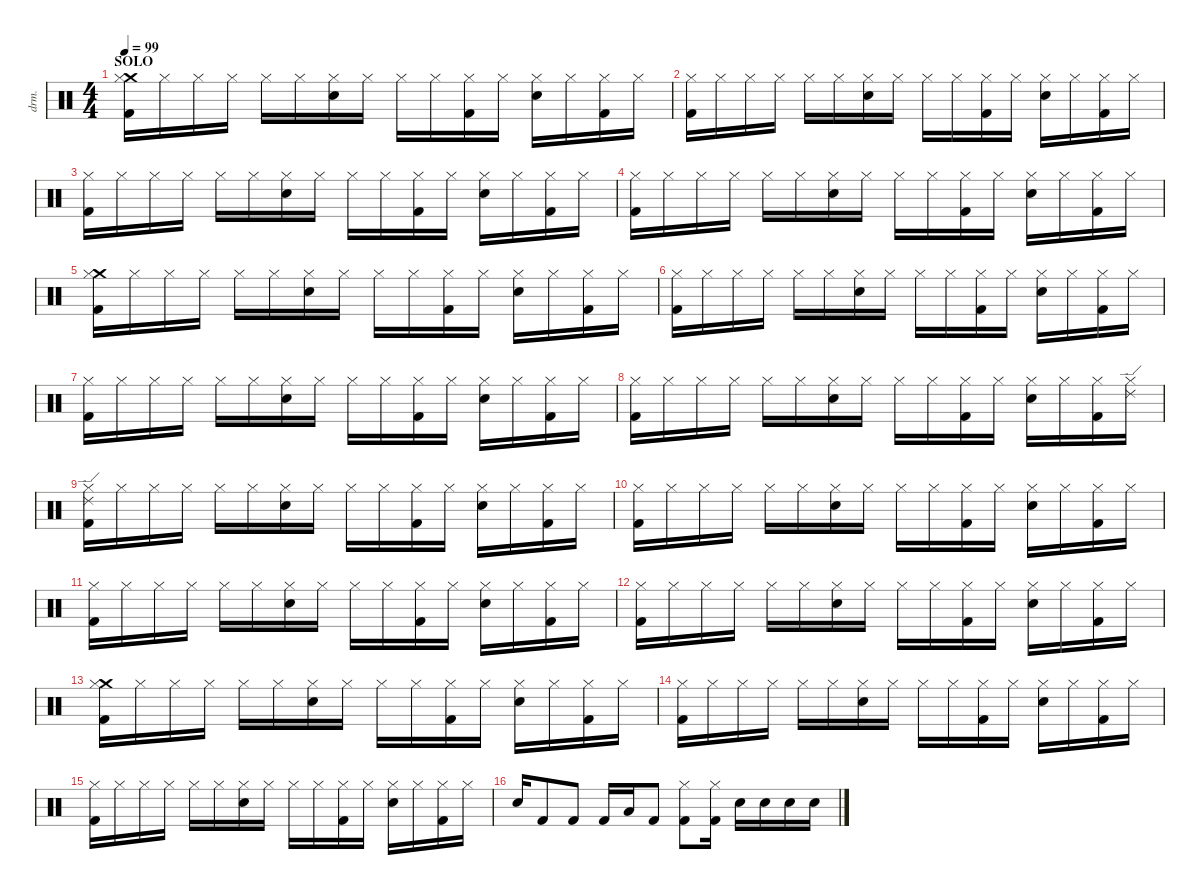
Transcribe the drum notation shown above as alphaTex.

\defaultSystemsLayout 4
\hideDynamics
\bracketExtendMode nobrackets
\otherSystemsTrackNameOrientation horizontal
\track ("Drum" "drm.") {instrument percussion}
\staff {score}
\articulation defaults
\ts (4 4)
\section ("" "SOLO")
\tempo 99
\clef neutral
\ks c
("Crash medium (hit)" "Hi-Hat (closed)" "Kick (hit) 2").16{dy f} "Hi-Hat (closed)".16 "Hi-Hat (closed)".16 "Hi-Hat (closed)".16 "Hi-Hat (closed)".16 "Hi-Hat (closed)".16 ("Hi-Hat (closed)" "Snare (hit) 2").16 "Hi-Hat (closed)".16 "Hi-Hat (closed)".16 "Hi-Hat (closed)".16 ("Hi-Hat (closed)" "Kick (hit) 2").16 "Hi-Hat (closed)".16 ("Hi-Hat (closed)" "Snare (hit) 2").16 "Hi-Hat (closed)".16 ("Hi-Hat (closed)" "Kick (hit) 2").16 "Hi-Hat (closed)".16 |
("Hi-Hat (closed)" "Kick (hit) 2").16 "Hi-Hat (closed)".16 "Hi-Hat (closed)".16 "Hi-Hat (closed)".16 "Hi-Hat (closed)".16 "Hi-Hat (closed)".16 ("Hi-Hat (closed)" "Snare (hit) 2").16 "Hi-Hat (closed)".16 "Hi-Hat (closed)".16 "Hi-Hat (closed)".16 ("Hi-Hat (closed)" "Kick (hit) 2").16 "Hi-Hat (closed)".16 ("Hi-Hat (closed)" "Snare (hit) 2").16 "Hi-Hat (closed)".16 ("Hi-Hat (closed)" "Kick (hit) 2").16 "Hi-Hat (closed)".16 |
("Hi-Hat (closed)" "Kick (hit) 2").16 "Hi-Hat (closed)".16 "Hi-Hat (closed)".16 "Hi-Hat (closed)".16 "Hi-Hat (closed)".16 "Hi-Hat (closed)".16 ("Hi-Hat (closed)" "Snare (hit) 2").16 "Hi-Hat (closed)".16 "Hi-Hat (closed)".16 "Hi-Hat (closed)".16 ("Hi-Hat (closed)" "Kick (hit) 2").16 "Hi-Hat (closed)".16 ("Hi-Hat (closed)" "Snare (hit) 2").16 "Hi-Hat (closed)".16 ("Hi-Hat (closed)" "Kick (hit) 2").16 "Hi-Hat (closed)".16 |
("Hi-Hat (closed)" "Kick (hit) 2").16 "Hi-Hat (closed)".16 "Hi-Hat (closed)".16 "Hi-Hat (closed)".16 "Hi-Hat (closed)".16 "Hi-Hat (closed)".16 ("Hi-Hat (closed)" "Snare (hit) 2").16 "Hi-Hat (closed)".16 "Hi-Hat (closed)".16 "Hi-Hat (closed)".16 ("Hi-Hat (closed)" "Kick (hit) 2").16 "Hi-Hat (closed)".16 ("Hi-Hat (closed)" "Snare (hit) 2").16 "Hi-Hat (closed)".16 ("Hi-Hat (closed)" "Kick (hit) 2").16 "Hi-Hat (closed)".16 |
("Crash medium (hit)" "Hi-Hat (closed)" "Kick (hit) 2").16 "Hi-Hat (closed)".16 "Hi-Hat (closed)".16 "Hi-Hat (closed)".16 "Hi-Hat (closed)".16 "Hi-Hat (closed)".16 ("Hi-Hat (closed)" "Snare (hit) 2").16 "Hi-Hat (closed)".16 "Hi-Hat (closed)".16 "Hi-Hat (closed)".16 ("Hi-Hat (closed)" "Kick (hit) 2").16 "Hi-Hat (closed)".16 ("Hi-Hat (closed)" "Snare (hit) 2").16 "Hi-Hat (closed)".16 ("Hi-Hat (closed)" "Kick (hit) 2").16 "Hi-Hat (closed)".16 |
("Hi-Hat (closed)" "Kick (hit) 2").16 "Hi-Hat (closed)".16 "Hi-Hat (closed)".16 "Hi-Hat (closed)".16 "Hi-Hat (closed)".16 "Hi-Hat (closed)".16 ("Hi-Hat (closed)" "Snare (hit) 2").16 "Hi-Hat (closed)".16 "Hi-Hat (closed)".16 "Hi-Hat (closed)".16 ("Hi-Hat (closed)" "Kick (hit) 2").16 "Hi-Hat (closed)".16 ("Hi-Hat (closed)" "Snare (hit) 2").16 "Hi-Hat (closed)".16 ("Hi-Hat (closed)" "Kick (hit) 2").16 "Hi-Hat (closed)".16 |
("Hi-Hat (closed)" "Kick (hit) 2").16 "Hi-Hat (closed)".16 "Hi-Hat (closed)".16 "Hi-Hat (closed)".16 "Hi-Hat (closed)".16 "Hi-Hat (closed)".16 ("Hi-Hat (closed)" "Snare (hit) 2").16 "Hi-Hat (closed)".16 "Hi-Hat (closed)".16 "Hi-Hat (closed)".16 ("Hi-Hat (closed)" "Kick (hit) 2").16 "Hi-Hat (closed)".16 ("Hi-Hat (closed)" "Snare (hit) 2").16 "Hi-Hat (closed)".16 ("Hi-Hat (closed)" "Kick (hit) 2").16 "Hi-Hat (closed)".16 |
("Hi-Hat (closed)" "Kick (hit) 2").16 "Hi-Hat (closed)".16 "Hi-Hat (closed)".16 "Hi-Hat (closed)".16 "Hi-Hat (closed)".16 "Hi-Hat (closed)".16 ("Hi-Hat (closed)" "Snare (hit) 2").16 "Hi-Hat (closed)".16 "Hi-Hat (closed)".16 "Hi-Hat (closed)".16 ("Hi-Hat (closed)" "Kick (hit) 2").16 "Hi-Hat (closed)".16 ("Hi-Hat (closed)" "Snare (hit) 2").16 "Hi-Hat (closed)".16 ("Hi-Hat (closed)" "Kick (hit) 2").16 ("Ride (edge) 2" "Hi-Hat (closed)").16 |
("Ride (edge) 2" "Hi-Hat (closed)" "Kick (hit) 2").16 "Hi-Hat (closed)".16 "Hi-Hat (closed)".16 "Hi-Hat (closed)".16 "Hi-Hat (closed)".16 "Hi-Hat (closed)".16 ("Hi-Hat (closed)" "Snare (hit) 2").16 "Hi-Hat (closed)".16 "Hi-Hat (closed)".16 "Hi-Hat (closed)".16 ("Hi-Hat (closed)" "Kick (hit) 2").16 "Hi-Hat (closed)".16 ("Hi-Hat (closed)" "Snare (hit) 2").16 "Hi-Hat (closed)".16 ("Hi-Hat (closed)" "Kick (hit) 2").16 "Hi-Hat (closed)".16 |
("Hi-Hat (closed)" "Kick (hit) 2").16 "Hi-Hat (closed)".16 "Hi-Hat (closed)".16 "Hi-Hat (closed)".16 "Hi-Hat (closed)".16 "Hi-Hat (closed)".16 ("Hi-Hat (closed)" "Snare (hit) 2").16 "Hi-Hat (closed)".16 "Hi-Hat (closed)".16 "Hi-Hat (closed)".16 ("Hi-Hat (closed)" "Kick (hit) 2").16 "Hi-Hat (closed)".16 ("Hi-Hat (closed)" "Snare (hit) 2").16 "Hi-Hat (closed)".16 ("Hi-Hat (closed)" "Kick (hit) 2").16 "Hi-Hat (closed)".16 |
("Hi-Hat (closed)" "Kick (hit) 2").16 "Hi-Hat (closed)".16 "Hi-Hat (closed)".16 "Hi-Hat (closed)".16 "Hi-Hat (closed)".16 "Hi-Hat (closed)".16 ("Hi-Hat (closed)" "Snare (hit) 2").16 "Hi-Hat (closed)".16 "Hi-Hat (closed)".16 "Hi-Hat (closed)".16 ("Hi-Hat (closed)" "Kick (hit) 2").16 "Hi-Hat (closed)".16 ("Hi-Hat (closed)" "Snare (hit) 2").16 "Hi-Hat (closed)".16 ("Hi-Hat (closed)" "Kick (hit) 2").16 "Hi-Hat (closed)".16 |
("Hi-Hat (closed)" "Kick (hit) 2").16 "Hi-Hat (closed)".16 "Hi-Hat (closed)".16 "Hi-Hat (closed)".16 "Hi-Hat (closed)".16 "Hi-Hat (closed)".16 ("Hi-Hat (closed)" "Snare (hit) 2").16 "Hi-Hat (closed)".16 "Hi-Hat (closed)".16 "Hi-Hat (closed)".16 ("Hi-Hat (closed)" "Kick (hit) 2").16 "Hi-Hat (closed)".16 ("Hi-Hat (closed)" "Snare (hit) 2").16 "Hi-Hat (closed)".16 ("Hi-Hat (closed)" "Kick (hit) 2").16 "Hi-Hat (closed)".16 |
("Crash medium (hit)" "Hi-Hat (closed)" "Kick (hit) 2").16 "Hi-Hat (closed)".16 "Hi-Hat (closed)".16 "Hi-Hat (closed)".16 "Hi-Hat (closed)".16 "Hi-Hat (closed)".16 ("Hi-Hat (closed)" "Snare (hit) 2").16 "Hi-Hat (closed)".16 "Hi-Hat (closed)".16 "Hi-Hat (closed)".16 ("Hi-Hat (closed)" "Kick (hit) 2").16 "Hi-Hat (closed)".16 ("Hi-Hat (closed)" "Snare (hit) 2").16 "Hi-Hat (closed)".16 ("Hi-Hat (closed)" "Kick (hit) 2").16 "Hi-Hat (closed)".16 |
("Hi-Hat (closed)" "Kick (hit) 2").16 "Hi-Hat (closed)".16 "Hi-Hat (closed)".16 "Hi-Hat (closed)".16 "Hi-Hat (closed)".16 "Hi-Hat (closed)".16 ("Hi-Hat (closed)" "Snare (hit) 2").16 "Hi-Hat (closed)".16 "Hi-Hat (closed)".16 "Hi-Hat (closed)".16 ("Hi-Hat (closed)" "Kick (hit) 2").16 "Hi-Hat (closed)".16 ("Hi-Hat (closed)" "Snare (hit) 2").16 "Hi-Hat (closed)".16 ("Hi-Hat (closed)" "Kick (hit) 2").16 "Hi-Hat (closed)".16 |
("Hi-Hat (closed)" "Kick (hit) 2").16 "Hi-Hat (closed)".16 "Hi-Hat (closed)".16 "Hi-Hat (closed)".16 "Hi-Hat (closed)".16 "Hi-Hat (closed)".16 ("Hi-Hat (closed)" "Snare (hit) 2").16 "Hi-Hat (closed)".16 "Hi-Hat (closed)".16 "Hi-Hat (closed)".16 ("Hi-Hat (closed)" "Kick (hit) 2").16 "Hi-Hat (closed)".16 ("Hi-Hat (closed)" "Snare (hit) 2").16 "Hi-Hat (closed)".16 ("Hi-Hat (closed)" "Kick (hit) 2").16 "Hi-Hat (closed)".16 |
"Snare (hit) 2".16 "Kick (hit) 2".8 "Kick (hit) 2".8 "Kick (hit) 2".16 "Low Floor Tom (hit)".16 "Kick (hit) 2".8 ("Hi-Hat (closed)" "Kick (hit) 2").8 ("Hi-Hat (closed)" "Kick (hit) 2").16 "Snare (hit) 2".16 "Snare (hit) 2".16 "Snare (hit) 2".16 "Snare (hit) 2".16
